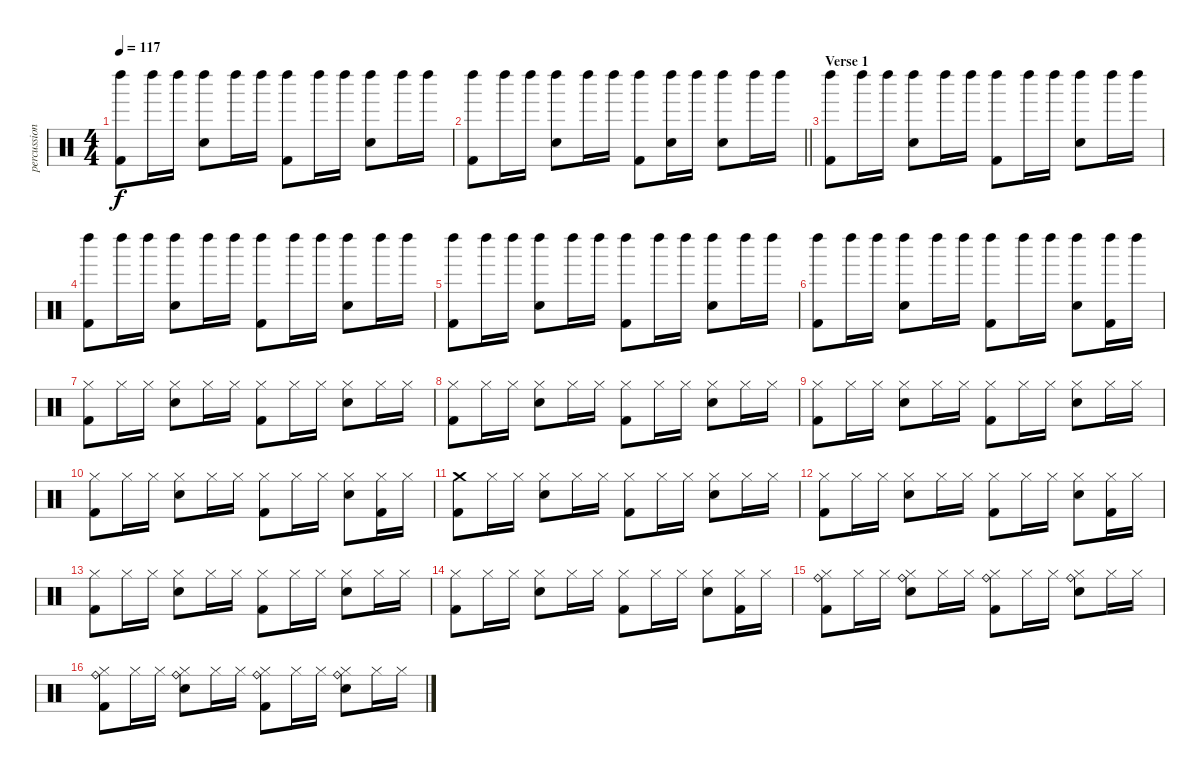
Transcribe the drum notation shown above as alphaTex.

\track ("percussion" "percussion") {instrument percussion}
\staff {score}
\articulation defaults
\ts (4 4)
\tempo 117
\clef neutral
\ks c
("Left Maraca (hit)" "Kick (hit) 2").8{dy f} "Left Maraca (hit)".16 "Left Maraca (hit)".16 ("Snare (hit) 2" "Left Maraca (hit)").8 "Left Maraca (hit)".16 "Left Maraca (hit)".16 ("Left Maraca (hit)" "Kick (hit) 2").8 "Left Maraca (hit)".16 "Left Maraca (hit)".16 ("Snare (hit) 2" "Left Maraca (hit)").8 "Left Maraca (hit)".16 "Left Maraca (hit)".16 |
\barLineRight lightlight
("Left Maraca (hit)" "Kick (hit) 2").8 "Left Maraca (hit)".16 "Left Maraca (hit)".16 ("Snare (hit) 2" "Left Maraca (hit)").8 "Left Maraca (hit)".16 "Left Maraca (hit)".16 ("Left Maraca (hit)" "Kick (hit) 2").8 ("Snare (hit) 2" "Left Maraca (hit)").16 "Left Maraca (hit)".16 ("Snare (hit) 2" "Left Maraca (hit)").8 "Left Maraca (hit)".16 "Left Maraca (hit)".16 |
\section ("" "Verse 1")
("Left Maraca (hit)" "Kick (hit) 2").8 "Left Maraca (hit)".16 "Left Maraca (hit)".16 ("Snare (hit) 2" "Left Maraca (hit)").8 "Left Maraca (hit)".16 "Left Maraca (hit)".16 ("Left Maraca (hit)" "Kick (hit) 2").8 "Left Maraca (hit)".16 "Left Maraca (hit)".16 ("Snare (hit) 2" "Left Maraca (hit)").8 "Left Maraca (hit)".16 "Left Maraca (hit)".16 |
("Left Maraca (hit)" "Kick (hit) 2").8 "Left Maraca (hit)".16 "Left Maraca (hit)".16 ("Snare (hit) 2" "Left Maraca (hit)").8 "Left Maraca (hit)".16 "Left Maraca (hit)".16 ("Left Maraca (hit)" "Kick (hit) 2").8 "Left Maraca (hit)".16 "Left Maraca (hit)".16 ("Snare (hit) 2" "Left Maraca (hit)").8 "Left Maraca (hit)".16 "Left Maraca (hit)".16 |
("Left Maraca (hit)" "Kick (hit) 2").8 "Left Maraca (hit)".16 "Left Maraca (hit)".16 ("Snare (hit) 2" "Left Maraca (hit)").8 "Left Maraca (hit)".16 "Left Maraca (hit)".16 ("Left Maraca (hit)" "Kick (hit) 2").8 "Left Maraca (hit)".16 "Left Maraca (hit)".16 ("Snare (hit) 2" "Left Maraca (hit)").8 "Left Maraca (hit)".16 "Left Maraca (hit)".16 |
("Left Maraca (hit)" "Kick (hit) 2").8 "Left Maraca (hit)".16 "Left Maraca (hit)".16 ("Snare (hit) 2" "Left Maraca (hit)").8 "Left Maraca (hit)".16 "Left Maraca (hit)".16 ("Left Maraca (hit)" "Kick (hit) 2").8 "Left Maraca (hit)".16 "Left Maraca (hit)".16 ("Snare (hit) 2" "Left Maraca (hit)").8 ("Left Maraca (hit)" "Kick (hit) 2").16 "Left Maraca (hit)".16 |
("Hi-Hat (closed)" "Kick (hit) 2").8 "Hi-Hat (closed)".16 "Hi-Hat (closed)".16 ("Snare (hit) 2" "Hi-Hat (closed)").8 "Hi-Hat (closed)".16 "Hi-Hat (closed)".16 ("Hi-Hat (closed)" "Kick (hit) 2").8 "Hi-Hat (closed)".16 "Hi-Hat (closed)".16 ("Snare (hit) 2" "Hi-Hat (closed)").8 "Hi-Hat (closed)".16 "Hi-Hat (closed)".16 |
("Hi-Hat (closed)" "Kick (hit) 2").8 "Hi-Hat (closed)".16 "Hi-Hat (closed)".16 ("Snare (hit) 2" "Hi-Hat (closed)").8 "Hi-Hat (closed)".16 "Hi-Hat (closed)".16 ("Hi-Hat (closed)" "Kick (hit) 2").8 "Hi-Hat (closed)".16 "Hi-Hat (closed)".16 ("Snare (hit) 2" "Hi-Hat (closed)").8 "Hi-Hat (closed)".16 "Hi-Hat (closed)".16 |
("Hi-Hat (closed)" "Kick (hit) 2").8 "Hi-Hat (closed)".16 "Hi-Hat (closed)".16 ("Snare (hit) 2" "Hi-Hat (closed)").8 "Hi-Hat (closed)".16 "Hi-Hat (closed)".16 ("Hi-Hat (closed)" "Kick (hit) 2").8 "Hi-Hat (closed)".16 "Hi-Hat (closed)".16 ("Snare (hit) 2" "Hi-Hat (closed)").8 "Hi-Hat (closed)".16 "Hi-Hat (closed)".16 |
("Hi-Hat (closed)" "Kick (hit) 2").8 "Hi-Hat (closed)".16 "Hi-Hat (closed)".16 ("Snare (hit) 2" "Hi-Hat (closed)").8 "Hi-Hat (closed)".16 "Hi-Hat (closed)".16 ("Hi-Hat (closed)" "Kick (hit) 2").8 "Hi-Hat (closed)".16 "Hi-Hat (closed)".16 ("Snare (hit) 2" "Hi-Hat (closed)").8 ("Hi-Hat (closed)" "Kick (hit) 2").16 "Hi-Hat (closed)".16 |
("Crash medium (hit)" "Kick (hit) 2").8 "Hi-Hat (closed)".16 "Hi-Hat (closed)".16 ("Snare (hit) 2" "Hi-Hat (closed)").8 "Hi-Hat (closed)".16 "Hi-Hat (closed)".16 ("Hi-Hat (closed)" "Kick (hit) 2").8 "Hi-Hat (closed)".16 "Hi-Hat (closed)".16 ("Snare (hit) 2" "Hi-Hat (closed)").8 "Hi-Hat (closed)".16 "Hi-Hat (closed)".16 |
("Hi-Hat (closed)" "Kick (hit) 2").8 "Hi-Hat (closed)".16 "Hi-Hat (closed)".16 ("Snare (hit) 2" "Hi-Hat (closed)").8 "Hi-Hat (closed)".16 "Hi-Hat (closed)".16 ("Hi-Hat (closed)" "Kick (hit) 2").8 "Hi-Hat (closed)".16 "Hi-Hat (closed)".16 ("Snare (hit) 2" "Hi-Hat (closed)").8 ("Hi-Hat (closed)" "Kick (hit) 2").16 "Hi-Hat (closed)".16 |
("Hi-Hat (closed)" "Kick (hit) 2").8 "Hi-Hat (closed)".16 "Hi-Hat (closed)".16 ("Snare (hit) 2" "Hi-Hat (closed)").8 "Hi-Hat (closed)".16 "Hi-Hat (closed)".16 ("Hi-Hat (closed)" "Kick (hit) 2").8 "Hi-Hat (closed)".16 "Hi-Hat (closed)".16 ("Snare (hit) 2" "Hi-Hat (closed)").8 "Hi-Hat (closed)".16 "Hi-Hat (closed)".16 |
("Hi-Hat (closed)" "Kick (hit) 2").8 "Hi-Hat (closed)".16 "Hi-Hat (closed)".16 ("Snare (hit) 2" "Hi-Hat (closed)").8 "Hi-Hat (closed)".16 "Hi-Hat (closed)".16 ("Hi-Hat (closed)" "Kick (hit) 2").8 "Hi-Hat (closed)".16 "Hi-Hat (closed)".16 ("Snare (hit) 2" "Hi-Hat (closed)").8 ("Hi-Hat (closed)" "Kick (hit) 2").16 "Hi-Hat (closed)".16 |
("Ride (bell)" "Hi-Hat (closed)" "Kick (hit) 2").8 "Hi-Hat (closed)".16 "Hi-Hat (closed)".16 ("Ride (bell)" "Snare (hit) 2" "Hi-Hat (closed)").8 "Hi-Hat (closed)".16 "Hi-Hat (closed)".16 ("Ride (bell)" "Hi-Hat (closed)" "Kick (hit) 2").8 "Hi-Hat (closed)".16 "Hi-Hat (closed)".16 ("Ride (bell)" "Snare (hit) 2" "Hi-Hat (closed)").8 "Hi-Hat (closed)".16 "Hi-Hat (closed)".16 |
("Ride (bell)" "Hi-Hat (closed)" "Kick (hit) 2").8 "Hi-Hat (closed)".16 "Hi-Hat (closed)".16 ("Ride (bell)" "Snare (hit) 2" "Hi-Hat (closed)").8 "Hi-Hat (closed)".16 "Hi-Hat (closed)".16 ("Ride (bell)" "Hi-Hat (closed)" "Kick (hit) 2").8 "Hi-Hat (closed)".16 "Hi-Hat (closed)".16 ("Ride (bell)" "Snare (hit) 2" "Hi-Hat (closed)").8 "Hi-Hat (closed)".16 "Hi-Hat (closed)".16
